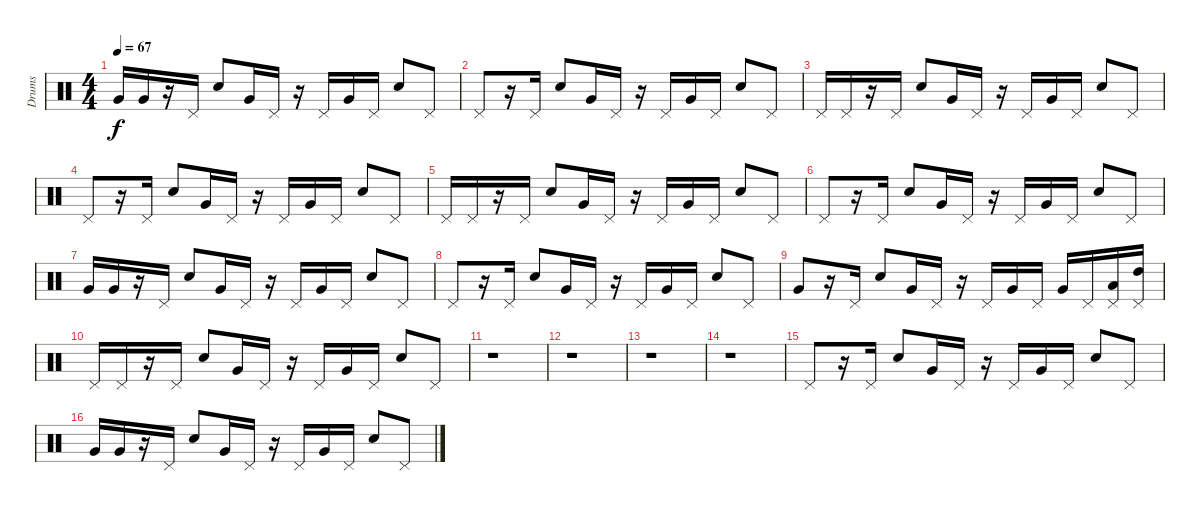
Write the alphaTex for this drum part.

\track ("Drums" "Drums") {instrument percussion}
\staff {score}
\articulation defaults
\ts (4 4)
\tempo 67
\clef neutral
\ks c "Very Low Tom (hit)".16{dy f} "Very Low Tom (hit)".16
r.16 "Pedal Hi-Hat (hit)".16 "Electric Snare (hit)".8 "Very Low Tom (hit)".16 "Pedal Hi-Hat (hit)".16 r.16 "Pedal Hi-Hat (hit)".16 "Very Low Tom (hit)".16 "Pedal Hi-Hat (hit)".16 "Electric Snare (hit)".8 "Pedal Hi-Hat (hit)".8 |
"Pedal Hi-Hat (hit)".8 r.16 "Pedal Hi-Hat (hit)".16 "Electric Snare (hit)".8 "Very Low Tom (hit)".16 "Pedal Hi-Hat (hit)".16 r.16 "Pedal Hi-Hat (hit)".16 "Very Low Tom (hit)".16 "Pedal Hi-Hat (hit)".16 "Electric Snare (hit)".8 "Pedal Hi-Hat (hit)".8 |
"Pedal Hi-Hat (hit)".16 "Pedal Hi-Hat (hit)".16 r.16 "Pedal Hi-Hat (hit)".16 "Electric Snare (hit)".8 "Very Low Tom (hit)".16 "Pedal Hi-Hat (hit)".16 r.16 "Pedal Hi-Hat (hit)".16 "Very Low Tom (hit)".16 "Pedal Hi-Hat (hit)".16 "Electric Snare (hit)".8 "Pedal Hi-Hat (hit)".8 |
"Pedal Hi-Hat (hit)".8 r.16 "Pedal Hi-Hat (hit)".16 "Electric Snare (hit)".8 "Very Low Tom (hit)".16 "Pedal Hi-Hat (hit)".16 r.16 "Pedal Hi-Hat (hit)".16 "Very Low Tom (hit)".16 "Pedal Hi-Hat (hit)".16 "Electric Snare (hit)".8 "Pedal Hi-Hat (hit)".8 |
"Pedal Hi-Hat (hit)".16 "Pedal Hi-Hat (hit)".16 r.16 "Pedal Hi-Hat (hit)".16 "Electric Snare (hit)".8 "Very Low Tom (hit)".16 "Pedal Hi-Hat (hit)".16 r.16 "Pedal Hi-Hat (hit)".16 "Very Low Tom (hit)".16 "Pedal Hi-Hat (hit)".16 "Electric Snare (hit)".8 "Pedal Hi-Hat (hit)".8 |
"Pedal Hi-Hat (hit)".8 r.16 "Pedal Hi-Hat (hit)".16 "Electric Snare (hit)".8 "Very Low Tom (hit)".16 "Pedal Hi-Hat (hit)".16 r.16 "Pedal Hi-Hat (hit)".16 "Very Low Tom (hit)".16 "Pedal Hi-Hat (hit)".16 "Electric Snare (hit)".8 "Pedal Hi-Hat (hit)".8 |
"Very Low Tom (hit)".16 "Very Low Tom (hit)".16 r.16 "Pedal Hi-Hat (hit)".16 "Electric Snare (hit)".8 "Very Low Tom (hit)".16 "Pedal Hi-Hat (hit)".16 r.16 "Pedal Hi-Hat (hit)".16 "Very Low Tom (hit)".16 "Pedal Hi-Hat (hit)".16 "Electric Snare (hit)".8 "Pedal Hi-Hat (hit)".8 |
"Pedal Hi-Hat (hit)".8 r.16 "Pedal Hi-Hat (hit)".16 "Electric Snare (hit)".8 "Very Low Tom (hit)".16 "Pedal Hi-Hat (hit)".16 r.16 "Pedal Hi-Hat (hit)".16 "Very Low Tom (hit)".16 "Pedal Hi-Hat (hit)".16 "Electric Snare (hit)".8 "Pedal Hi-Hat (hit)".8 |
"Very Low Tom (hit)".8 r.16 "Pedal Hi-Hat (hit)".16 "Electric Snare (hit)".8 "Very Low Tom (hit)".16 "Pedal Hi-Hat (hit)".16 r.16 "Pedal Hi-Hat (hit)".16 "Very Low Tom (hit)".16 "Pedal Hi-Hat (hit)".16 "Very Low Tom (hit)".16 "Pedal Hi-Hat (hit)".16 ("Pedal Hi-Hat (hit)" "Low Tom (hit)").16 ("Pedal Hi-Hat (hit)" "High Tom (hit)").16 |
"Pedal Hi-Hat (hit)".16 "Pedal Hi-Hat (hit)".16 r.16 "Pedal Hi-Hat (hit)".16 "Electric Snare (hit)".8 "Very Low Tom (hit)".16 "Pedal Hi-Hat (hit)".16 r.16 "Pedal Hi-Hat (hit)".16 "Very Low Tom (hit)".16 "Pedal Hi-Hat (hit)".16 "Electric Snare (hit)".8 "Pedal Hi-Hat (hit)".8 |
r.1 |
r.1 |
r.1 |
r.1 |
"Pedal Hi-Hat (hit)".8 r.16 "Pedal Hi-Hat (hit)".16 "Electric Snare (hit)".8 "Very Low Tom (hit)".16 "Pedal Hi-Hat (hit)".16 r.16 "Pedal Hi-Hat (hit)".16 "Very Low Tom (hit)".16 "Pedal Hi-Hat (hit)".16 "Electric Snare (hit)".8 "Pedal Hi-Hat (hit)".8 |
"Very Low Tom (hit)".16 "Very Low Tom (hit)".16 r.16 "Pedal Hi-Hat (hit)".16 "Electric Snare (hit)".8 "Very Low Tom (hit)".16 "Pedal Hi-Hat (hit)".16 r.16 "Pedal Hi-Hat (hit)".16 "Very Low Tom (hit)".16 "Pedal Hi-Hat (hit)".16 "Electric Snare (hit)".8 "Pedal Hi-Hat (hit)".8
